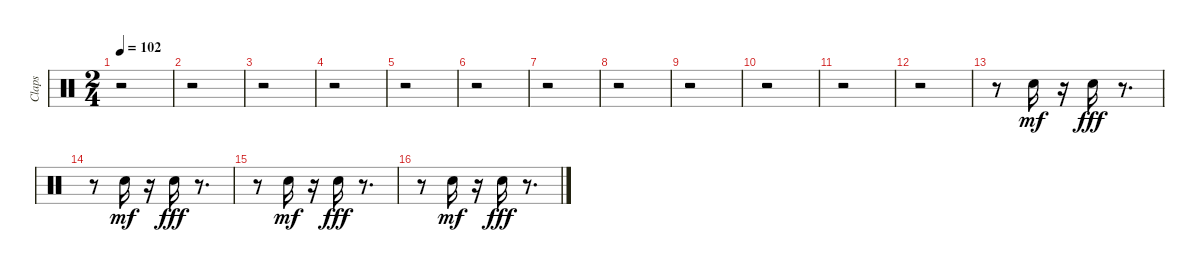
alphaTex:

\track ("Claps" "Claps") {instrument percussion}
\staff {score}
\articulation defaults
\ts (2 4)
\tempo 102
\clef neutral
\ks c
r.2{dy fff} |
r.2 |
r.2 |
r.2 |
r.2 |
r.2 |
r.2 |
r.2 |
r.2 |
r.2 |
r.2 |
r.2 |
r.8 "Hand Clap (hit)".16{dy mf} r.16 "Hand Clap (hit)".16{dy fff} r.8{d} |
r.8 "Hand Clap (hit)".16{dy mf} r.16 "Hand Clap (hit)".16{dy fff} r.8{d} |
r.8 "Hand Clap (hit)".16{dy mf} r.16 "Hand Clap (hit)".16{dy fff} r.8{d} |
r.8 "Hand Clap (hit)".16{dy mf} r.16 "Hand Clap (hit)".16{dy fff} r.8{d}
